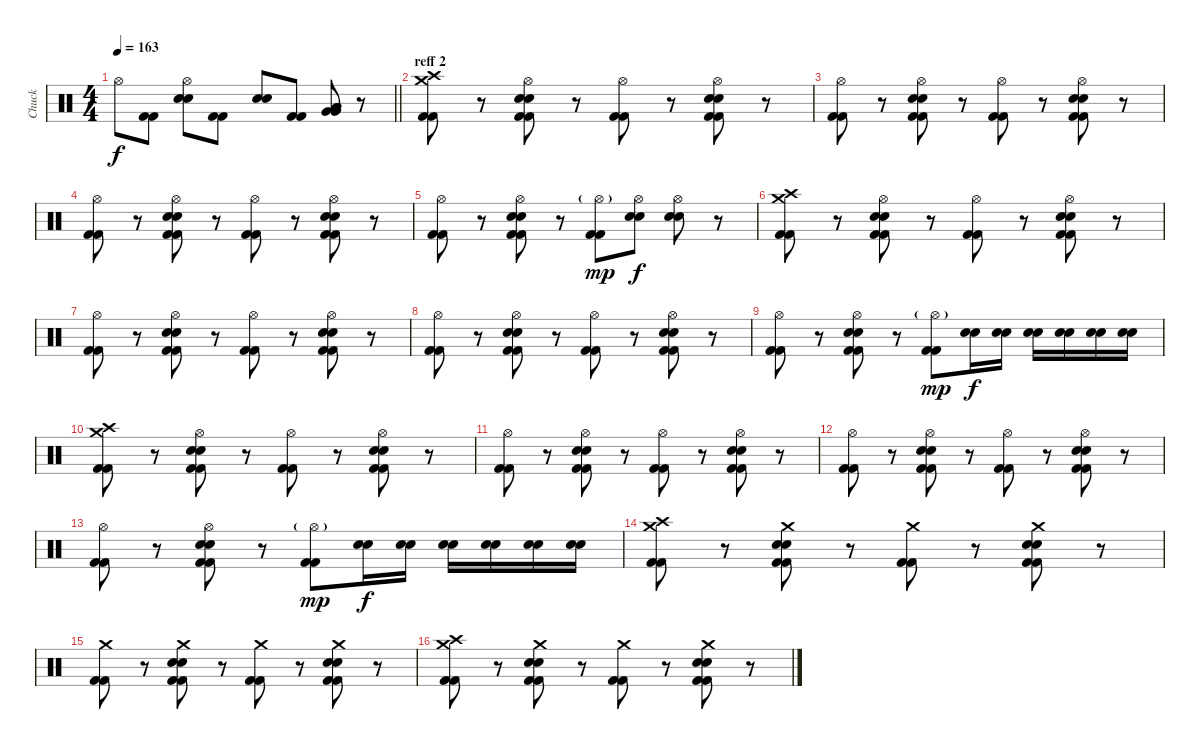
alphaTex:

\track ("Chuck" "Chuck") {instrument percussion}
\staff {score}
\articulation defaults
\ts (4 4)
\tempo 163
\clef neutral
\barLineRight lightlight
\ks c "Hi-Hat (open)".8{dy f}
("Kick (hit) 2" "Kick (hit) 2").8 ("Hi-Hat (open)" "Snare (hit) 2" "Snare (hit) 2").8 ("Kick (hit) 2" "Kick (hit) 2").8 ("Snare (hit) 2"{tr (38 16)} "Snare (hit) 2").8 ("Kick (hit) 2" "Kick (hit) 2").8 ("Very Low Tom (hit)" "Low Tom (hit)" "Low Tom (hit)" "Low Floor Tom (hit)" "Low Floor Tom (hit)" "Very Low Tom (hit)").8 r.8 |
\section ("" "reff 2")
("Crash medium (hit)" "Crash high (hit)" "Kick (hit) 2" "Kick (hit) 2").8 r.8 ("Hi-Hat (open)" "Snare (hit) 2" "Snare (hit) 2" "Kick (hit) 2" "Kick (hit) 2").8 r.8 ("Hi-Hat (open)" "Kick (hit) 2" "Kick (hit) 2").8 r.8 ("Hi-Hat (open)" "Snare (hit) 2" "Snare (hit) 2" "Kick (hit) 2" "Kick (hit) 2").8 r.8 |
("Hi-Hat (open)" "Kick (hit) 2" "Kick (hit) 2").8 r.8 ("Hi-Hat (open)" "Snare (hit) 2" "Snare (hit) 2" "Kick (hit) 2" "Kick (hit) 2").8 r.8 ("Hi-Hat (open)" "Kick (hit) 2" "Kick (hit) 2").8 r.8 ("Hi-Hat (open)" "Snare (hit) 2" "Snare (hit) 2" "Kick (hit) 2" "Kick (hit) 2").8 r.8 |
("Hi-Hat (open)" "Kick (hit) 2" "Kick (hit) 2").8 r.8 ("Hi-Hat (open)" "Snare (hit) 2" "Snare (hit) 2" "Kick (hit) 2" "Kick (hit) 2").8 r.8 ("Hi-Hat (open)" "Kick (hit) 2" "Kick (hit) 2").8 r.8 ("Hi-Hat (open)" "Snare (hit) 2" "Snare (hit) 2" "Kick (hit) 2" "Kick (hit) 2").8 r.8 |
("Hi-Hat (open)" "Kick (hit) 2" "Kick (hit) 2").8 r.8 ("Hi-Hat (open)" "Snare (hit) 2" "Snare (hit) 2" "Kick (hit) 2" "Kick (hit) 2").8 r.8 ("Hi-Hat (open)"{g} "Kick (hit) 2" "Kick (hit) 2").8{dy mp} ("Hi-Hat (open)" "Snare (hit) 2" "Snare (hit) 2").8{dy f} ("Hi-Hat (open)" "Snare (hit) 2" "Snare (hit) 2").8 r.8 |
("Crash medium (hit)" "Crash high (hit)" "Kick (hit) 2" "Kick (hit) 2").8 r.8 ("Hi-Hat (open)" "Snare (hit) 2" "Snare (hit) 2" "Kick (hit) 2" "Kick (hit) 2").8 r.8 ("Hi-Hat (open)" "Kick (hit) 2" "Kick (hit) 2").8 r.8 ("Hi-Hat (open)" "Snare (hit) 2" "Snare (hit) 2" "Kick (hit) 2" "Kick (hit) 2").8 r.8 |
("Hi-Hat (open)" "Kick (hit) 2" "Kick (hit) 2").8 r.8 ("Hi-Hat (open)" "Snare (hit) 2" "Snare (hit) 2" "Kick (hit) 2" "Kick (hit) 2").8 r.8 ("Hi-Hat (open)" "Kick (hit) 2" "Kick (hit) 2").8 r.8 ("Hi-Hat (open)" "Snare (hit) 2" "Snare (hit) 2" "Kick (hit) 2" "Kick (hit) 2").8 r.8 |
("Hi-Hat (open)" "Kick (hit) 2" "Kick (hit) 2").8 r.8 ("Hi-Hat (open)" "Snare (hit) 2" "Snare (hit) 2" "Kick (hit) 2" "Kick (hit) 2").8 r.8 ("Hi-Hat (open)" "Kick (hit) 2" "Kick (hit) 2").8 r.8 ("Hi-Hat (open)" "Snare (hit) 2" "Snare (hit) 2" "Kick (hit) 2" "Kick (hit) 2").8 r.8 |
("Hi-Hat (open)" "Kick (hit) 2" "Kick (hit) 2").8 r.8 ("Hi-Hat (open)" "Snare (hit) 2" "Snare (hit) 2" "Kick (hit) 2" "Kick (hit) 2").8 r.8 ("Hi-Hat (open)"{g} "Kick (hit) 2" "Kick (hit) 2").8{dy mp} ("Snare (hit) 2" "Snare (hit) 2").16{dy f} ("Snare (hit) 2" "Snare (hit) 2").16 ("Snare (hit) 2" "Snare (hit) 2").16 ("Snare (hit) 2" "Snare (hit) 2").16 ("Snare (hit) 2" "Snare (hit) 2").16 ("Snare (hit) 2" "Snare (hit) 2").16 |
("Crash medium (hit)" "Crash high (hit)" "Kick (hit) 2" "Kick (hit) 2").8 r.8 ("Hi-Hat (open)" "Snare (hit) 2" "Snare (hit) 2" "Kick (hit) 2" "Kick (hit) 2").8 r.8 ("Hi-Hat (open)" "Kick (hit) 2" "Kick (hit) 2").8 r.8 ("Hi-Hat (open)" "Snare (hit) 2" "Snare (hit) 2" "Kick (hit) 2" "Kick (hit) 2").8 r.8 |
("Hi-Hat (open)" "Kick (hit) 2" "Kick (hit) 2").8 r.8 ("Hi-Hat (open)" "Snare (hit) 2" "Snare (hit) 2" "Kick (hit) 2" "Kick (hit) 2").8 r.8 ("Hi-Hat (open)" "Kick (hit) 2" "Kick (hit) 2").8 r.8 ("Hi-Hat (open)" "Snare (hit) 2" "Snare (hit) 2" "Kick (hit) 2" "Kick (hit) 2").8 r.8 |
("Hi-Hat (open)" "Kick (hit) 2" "Kick (hit) 2").8 r.8 ("Hi-Hat (open)" "Snare (hit) 2" "Snare (hit) 2" "Kick (hit) 2" "Kick (hit) 2").8 r.8 ("Hi-Hat (open)" "Kick (hit) 2" "Kick (hit) 2").8 r.8 ("Hi-Hat (open)" "Snare (hit) 2" "Snare (hit) 2" "Kick (hit) 2" "Kick (hit) 2").8 r.8 |
("Hi-Hat (open)" "Kick (hit) 2" "Kick (hit) 2").8 r.8 ("Hi-Hat (open)" "Snare (hit) 2" "Snare (hit) 2" "Kick (hit) 2" "Kick (hit) 2").8 r.8 ("Hi-Hat (open)"{g} "Kick (hit) 2" "Kick (hit) 2").8{dy mp} ("Snare (hit) 2" "Snare (hit) 2").16{dy f} ("Snare (hit) 2" "Snare (hit) 2").16 ("Snare (hit) 2" "Snare (hit) 2").16 ("Snare (hit) 2" "Snare (hit) 2").16 ("Snare (hit) 2" "Snare (hit) 2").16 ("Snare (hit) 2" "Snare (hit) 2").16 |
("Crash medium (hit)" "Crash high (hit)" "Kick (hit) 2" "Kick (hit) 2").8 r.8 ("Crash medium (hit)" "Snare (hit) 2" "Snare (hit) 2" "Kick (hit) 2" "Kick (hit) 2").8 r.8 ("Crash medium (hit)" "Kick (hit) 2" "Kick (hit) 2").8 r.8 ("Crash medium (hit)" "Snare (hit) 2" "Snare (hit) 2" "Kick (hit) 2" "Kick (hit) 2").8 r.8 |
("Crash medium (hit)" "Kick (hit) 2" "Kick (hit) 2").8 r.8 ("Crash medium (hit)" "Snare (hit) 2" "Snare (hit) 2" "Kick (hit) 2" "Kick (hit) 2").8 r.8 ("Crash medium (hit)" "Kick (hit) 2" "Kick (hit) 2").8 r.8 ("Crash medium (hit)" "Snare (hit) 2" "Snare (hit) 2" "Kick (hit) 2" "Kick (hit) 2").8 r.8 |
("Crash medium (hit)" "Crash high (hit)" "Kick (hit) 2" "Kick (hit) 2").8 r.8 ("Crash medium (hit)" "Snare (hit) 2" "Snare (hit) 2" "Kick (hit) 2" "Kick (hit) 2").8 r.8 ("Crash medium (hit)" "Kick (hit) 2" "Kick (hit) 2").8 r.8 ("Crash medium (hit)" "Snare (hit) 2" "Snare (hit) 2" "Kick (hit) 2" "Kick (hit) 2").8 r.8
